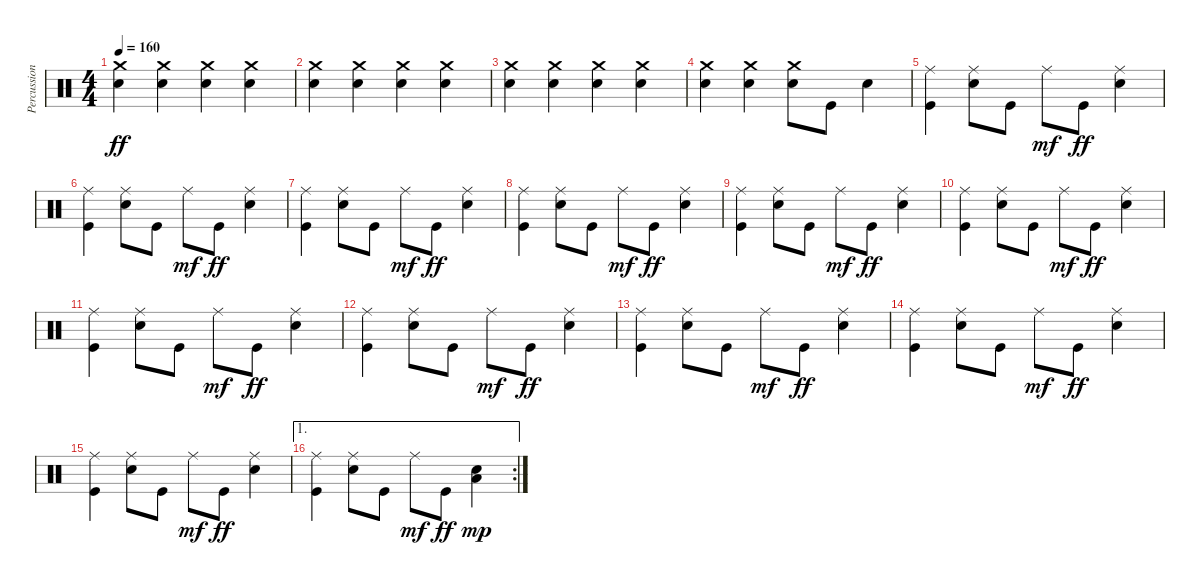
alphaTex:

\track ("Percussion" "Percussion") {instrument percussion}
\staff {score}
\articulation defaults
\ts (4 4)
\tempo 160
\clef neutral
\ks c
("Crash medium (hit)" "Electric Snare (hit)").4{dy ff} ("Crash medium (hit)" "Electric Snare (hit)").4 ("Crash medium (hit)" "Electric Snare (hit)").4 ("Crash medium (hit)" "Electric Snare (hit)").4 |
("Crash medium (hit)" "Electric Snare (hit)").4 ("Crash medium (hit)" "Electric Snare (hit)").4 ("Crash medium (hit)" "Electric Snare (hit)").4 ("Crash medium (hit)" "Electric Snare (hit)").4 |
("Crash medium (hit)" "Electric Snare (hit)").4 ("Crash medium (hit)" "Electric Snare (hit)").4 ("Crash medium (hit)" "Electric Snare (hit)").4 ("Crash medium (hit)" "Electric Snare (hit)").4 |
("Crash medium (hit)" "Electric Snare (hit)").4 ("Crash medium (hit)" "Electric Snare (hit)").4 ("Crash medium (hit)" "Electric Snare (hit)").8 "Kick (hit)".8 "Electric Snare (hit)".4 |
("Ride (middle)" "Kick (hit)").4 ("Ride (middle)" "Electric Snare (hit)").8 "Kick (hit)".8 "Ride (middle)".8{dy mf} "Kick (hit)".8{dy ff} ("Ride (middle)" "Electric Snare (hit)").4 |
("Ride (middle)" "Kick (hit)").4 ("Ride (middle)" "Electric Snare (hit)").8 "Kick (hit)".8 "Ride (middle)".8{dy mf} "Kick (hit)".8{dy ff} ("Ride (middle)" "Electric Snare (hit)").4 |
("Ride (middle)" "Kick (hit)").4 ("Ride (middle)" "Electric Snare (hit)").8 "Kick (hit)".8 "Ride (middle)".8{dy mf} "Kick (hit)".8{dy ff} ("Ride (middle)" "Electric Snare (hit)").4 |
("Ride (middle)" "Kick (hit)").4 ("Ride (middle)" "Electric Snare (hit)").8 "Kick (hit)".8 "Ride (middle)".8{dy mf} "Kick (hit)".8{dy ff} ("Ride (middle)" "Electric Snare (hit)").4 |
("Ride (middle)" "Kick (hit)").4 ("Ride (middle)" "Electric Snare (hit)").8 "Kick (hit)".8 "Ride (middle)".8{dy mf} "Kick (hit)".8{dy ff} ("Ride (middle)" "Electric Snare (hit)").4 |
("Ride (middle)" "Kick (hit)").4 ("Ride (middle)" "Electric Snare (hit)").8 "Kick (hit)".8 "Ride (middle)".8{dy mf} "Kick (hit)".8{dy ff} ("Ride (middle)" "Electric Snare (hit)").4 |
("Ride (middle)" "Kick (hit)").4 ("Ride (middle)" "Electric Snare (hit)").8 "Kick (hit)".8 "Ride (middle)".8{dy mf} "Kick (hit)".8{dy ff} ("Ride (middle)" "Electric Snare (hit)").4 |
("Ride (middle)" "Kick (hit)").4 ("Ride (middle)" "Electric Snare (hit)").8 "Kick (hit)".8 "Ride (middle)".8{dy mf} "Kick (hit)".8{dy ff} ("Ride (middle)" "Electric Snare (hit)").4 |
("Ride (middle)" "Kick (hit)").4 ("Ride (middle)" "Electric Snare (hit)").8 "Kick (hit)".8 "Ride (middle)".8{dy mf} "Kick (hit)".8{dy ff} ("Ride (middle)" "Electric Snare (hit)").4 |
("Ride (middle)" "Kick (hit)").4 ("Ride (middle)" "Electric Snare (hit)").8 "Kick (hit)".8 "Ride (middle)".8{dy mf} "Kick (hit)".8{dy ff} ("Ride (middle)" "Electric Snare (hit)").4 |
("Ride (middle)" "Kick (hit)").4 ("Ride (middle)" "Electric Snare (hit)").8 "Kick (hit)".8 "Ride (middle)".8{dy mf} "Kick (hit)".8{dy ff} ("Ride (middle)" "Electric Snare (hit)").4 |
\ae 1
\rc 2
("Ride (middle)" "Kick (hit)").4 ("Ride (middle)" "Electric Snare (hit)").8 "Kick (hit)".8 "Ride (middle)".8{dy mf} "Kick (hit)".8{dy ff} ("Electric Snare (hit)" "Low Floor Tom (hit)").4{dy mp}
